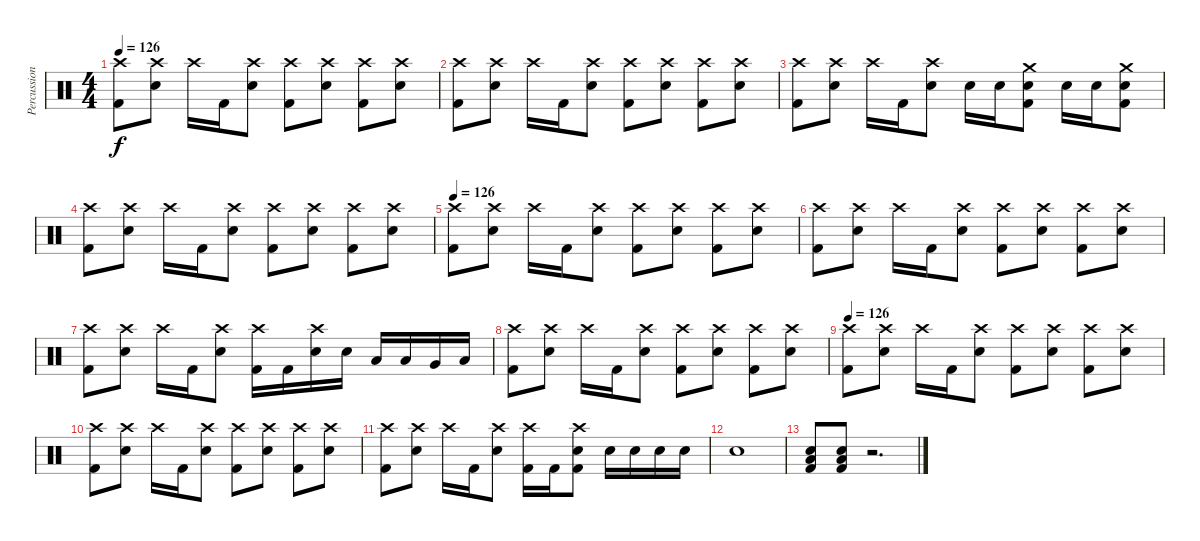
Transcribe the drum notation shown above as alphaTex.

\track ("Percussion" "Percussion") {instrument percussion}
\staff {score}
\articulation defaults
\ts (4 4)
\tempo 126
\clef neutral
\ks c
("Crash high (hit)" "Kick (hit) 2").8{dy f} ("Crash high (hit)" "Snare (hit) 2").8 "Crash high (hit)".16 "Kick (hit) 2".16 ("Crash high (hit)" "Snare (hit) 2").8 ("Crash high (hit)" "Kick (hit) 2").8 ("Crash high (hit)" "Snare (hit) 2").8 ("Crash high (hit)" "Kick (hit) 2").8 ("Crash high (hit)" "Snare (hit) 2").8 |
("Crash high (hit)" "Kick (hit) 2").8 ("Crash high (hit)" "Snare (hit) 2").8 "Crash high (hit)".16 "Kick (hit) 2".16 ("Crash high (hit)" "Snare (hit) 2").8 ("Crash high (hit)" "Kick (hit) 2").8 ("Crash high (hit)" "Snare (hit) 2").8 ("Crash high (hit)" "Kick (hit) 2").8 ("Crash high (hit)" "Snare (hit) 2").8 |
("Crash high (hit)" "Kick (hit) 2").8 ("Crash high (hit)" "Snare (hit) 2").8 "Crash high (hit)".16 "Kick (hit) 2".16 ("Crash high (hit)" "Snare (hit) 2").8 "Snare (hit) 2".16 "Snare (hit) 2".16 ("Crash medium (hit)" "Snare (hit) 2" "Kick (hit) 2").8 "Snare (hit) 2".16 "Snare (hit) 2".16 ("Crash medium (hit)" "Snare (hit) 2" "Kick (hit) 2").8 |
("Crash high (hit)" "Kick (hit) 2").8 ("Crash high (hit)" "Snare (hit) 2").8 "Crash high (hit)".16 "Kick (hit) 2".16 ("Crash high (hit)" "Snare (hit) 2").8 ("Crash high (hit)" "Kick (hit) 2").8 ("Crash high (hit)" "Snare (hit) 2").8 ("Crash high (hit)" "Kick (hit) 2").8 ("Crash high (hit)" "Snare (hit) 2").8 |
\tempo 126
("Crash high (hit)" "Kick (hit) 2").8 ("Crash high (hit)" "Snare (hit) 2").8 "Crash high (hit)".16 "Kick (hit) 2".16 ("Crash high (hit)" "Snare (hit) 2").8 ("Crash high (hit)" "Kick (hit) 2").8 ("Crash high (hit)" "Snare (hit) 2").8 ("Crash high (hit)" "Kick (hit) 2").8 ("Crash high (hit)" "Snare (hit) 2").8 |
("Crash high (hit)" "Kick (hit) 2").8 ("Crash high (hit)" "Snare (hit) 2").8 "Crash high (hit)".16 "Kick (hit) 2".16 ("Crash high (hit)" "Snare (hit) 2").8 ("Crash high (hit)" "Kick (hit) 2").8 ("Crash high (hit)" "Snare (hit) 2").8 ("Crash high (hit)" "Kick (hit) 2").8 ("Crash high (hit)" "Snare (hit) 2").8 |
("Crash high (hit)" "Kick (hit) 2").8 ("Crash high (hit)" "Snare (hit) 2").8 "Crash high (hit)".16 "Kick (hit) 2".16 ("Crash high (hit)" "Snare (hit) 2").8 ("Crash high (hit)" "Kick (hit) 2").16 "Kick (hit) 2".16 ("Crash high (hit)" "Snare (hit) 2").16 "Snare (hit) 2".16 "Low Tom (hit)".16 "Low Tom (hit)".16 "Very Low Tom (hit)".16 "Low Floor Tom (hit)".16 |
("Crash high (hit)" "Kick (hit) 2").8 ("Crash high (hit)" "Snare (hit) 2").8 "Crash high (hit)".16 "Kick (hit) 2".16 ("Crash high (hit)" "Snare (hit) 2").8 ("Crash high (hit)" "Kick (hit) 2").8 ("Crash high (hit)" "Snare (hit) 2").8 ("Crash high (hit)" "Kick (hit) 2").8 ("Crash high (hit)" "Snare (hit) 2").8 |
\tempo 126
("Crash high (hit)" "Kick (hit) 2").8 ("Crash high (hit)" "Snare (hit) 2").8 "Crash high (hit)".16 "Kick (hit) 2".16 ("Crash high (hit)" "Snare (hit) 2").8 ("Crash high (hit)" "Kick (hit) 2").8 ("Crash high (hit)" "Snare (hit) 2").8 ("Crash high (hit)" "Kick (hit) 2").8 ("Crash high (hit)" "Snare (hit) 2").8 |
("Crash high (hit)" "Kick (hit) 2").8 ("Crash high (hit)" "Snare (hit) 2").8 "Crash high (hit)".16 "Kick (hit) 2".16 ("Crash high (hit)" "Snare (hit) 2").8 ("Crash high (hit)" "Kick (hit) 2").8 ("Crash high (hit)" "Snare (hit) 2").8 ("Crash high (hit)" "Kick (hit) 2").8 ("Crash high (hit)" "Snare (hit) 2").8 |
("Crash high (hit)" "Kick (hit) 2").8 ("Crash high (hit)" "Snare (hit) 2").8 "Crash high (hit)".16 "Kick (hit) 2".16 ("Crash high (hit)" "Snare (hit) 2").8 ("Crash high (hit)" "Kick (hit) 2").16 "Kick (hit) 2".16 ("Crash high (hit)" "Snare (hit) 2" "Kick (hit) 2").8 "Snare (hit) 2".16 "Snare (hit) 2".16 "Snare (hit) 2".16 "Snare (hit) 2".16 |
"Snare (hit) 2".1 |
("Low Floor Tom (hit)" "Snare (hit) 2" "Kick (hit) 2").8 ("Low Floor Tom (hit)" "Snare (hit) 2" "Kick (hit) 2").8 r.2{d}
